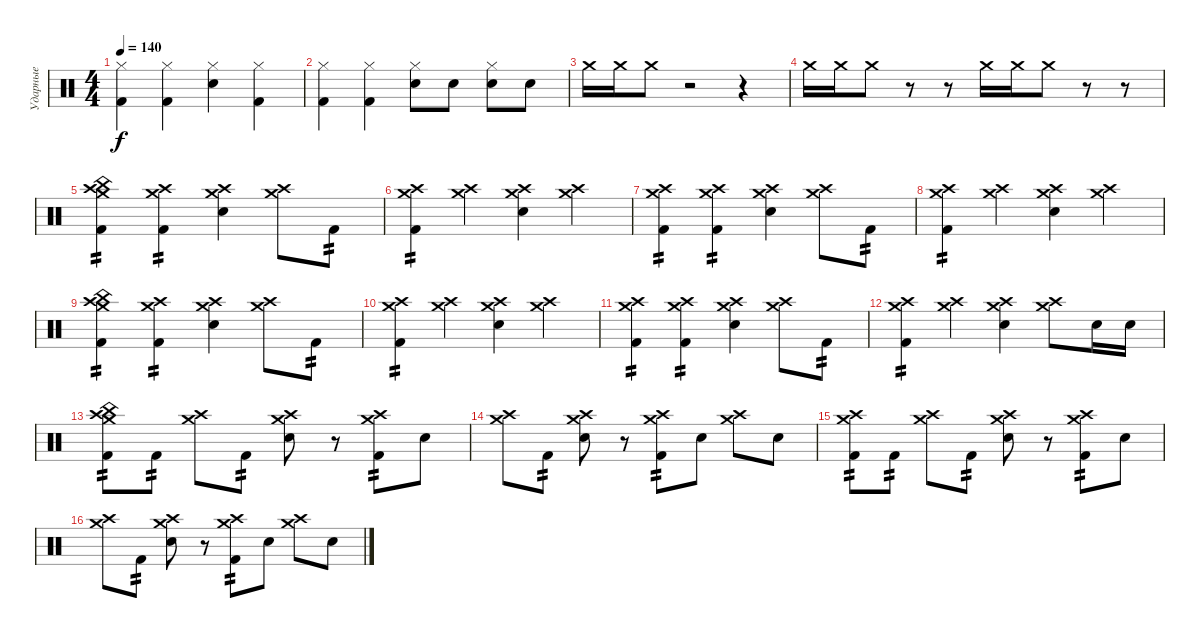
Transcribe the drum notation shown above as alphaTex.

\track ("Ударные" "Ударные") {instrument percussion}
\staff {score}
\articulation defaults
\ts (4 4)
\tempo 140
\clef neutral
\ks c
("Hi-Hat (closed)" "Kick (hit) 2").4{dy f} ("Hi-Hat (closed)" "Kick (hit) 2").4 ("Hi-Hat (closed)" "Electric Snare (hit)").4 ("Hi-Hat (closed)" "Kick (hit) 2").4 |
("Hi-Hat (closed)" "Kick (hit) 2").4 ("Hi-Hat (closed)" "Kick (hit) 2").4 ("Hi-Hat (closed)" "Electric Snare (hit)").8 "Electric Snare (hit)".8 ("Hi-Hat (closed)" "Electric Snare (hit)").8 "Electric Snare (hit)".8 |
"Crash medium (hit)".16 "Crash medium (hit)".16 "Crash medium (hit)".8 r.2 r.4 |
"Crash medium (hit)".16 "Crash medium (hit)".16 "Crash medium (hit)".8 r.8 r.8 "Crash medium (hit)".16 "Crash medium (hit)".16 "Crash medium (hit)".8 r.8 r.8 |
("Crash high (hit)" "China (hit)" "Crash medium (hit)" "Kick (hit) 2").4{tp 2} ("Crash high (hit)" "Crash medium (hit)" "Kick (hit) 2").4{tp 2} ("Crash high (hit)" "Crash medium (hit)" "Electric Snare (hit)").4 ("Crash high (hit)" "Crash medium (hit)").8 "Kick (hit) 2".8{tp 2} |
("Crash high (hit)" "Crash medium (hit)" "Kick (hit) 2").4{tp 2} ("Crash high (hit)" "Crash medium (hit)").4 ("Crash high (hit)" "Crash medium (hit)" "Electric Snare (hit)").4 ("Crash high (hit)" "Crash medium (hit)").4 |
("Crash high (hit)" "Crash medium (hit)" "Kick (hit) 2").4{tp 2} ("Crash high (hit)" "Crash medium (hit)" "Kick (hit) 2").4{tp 2} ("Crash high (hit)" "Crash medium (hit)" "Electric Snare (hit)").4 ("Crash high (hit)" "Crash medium (hit)").8 "Kick (hit) 2".8{tp 2} |
("Crash high (hit)" "Crash medium (hit)" "Kick (hit) 2").4{tp 2} ("Crash high (hit)" "Crash medium (hit)").4 ("Crash high (hit)" "Crash medium (hit)" "Electric Snare (hit)").4 ("Crash high (hit)" "Crash medium (hit)").4 |
("Crash high (hit)" "China (hit)" "Crash medium (hit)" "Kick (hit) 2").4{tp 2} ("Crash high (hit)" "Crash medium (hit)" "Kick (hit) 2").4{tp 2} ("Crash high (hit)" "Crash medium (hit)" "Electric Snare (hit)").4 ("Crash high (hit)" "Crash medium (hit)").8 "Kick (hit) 2".8{tp 2} |
("Crash high (hit)" "Crash medium (hit)" "Kick (hit) 2").4{tp 2} ("Crash high (hit)" "Crash medium (hit)").4 ("Crash high (hit)" "Crash medium (hit)" "Electric Snare (hit)").4 ("Crash high (hit)" "Crash medium (hit)").4 |
("Crash high (hit)" "Crash medium (hit)" "Kick (hit) 2").4{tp 2} ("Crash high (hit)" "Crash medium (hit)" "Kick (hit) 2").4{tp 2} ("Crash high (hit)" "Crash medium (hit)" "Electric Snare (hit)").4 ("Crash high (hit)" "Crash medium (hit)").8 "Kick (hit) 2".8{tp 2} |
("Crash high (hit)" "Crash medium (hit)" "Kick (hit) 2").4{tp 2} ("Crash high (hit)" "Crash medium (hit)").4 ("Crash high (hit)" "Crash medium (hit)" "Electric Snare (hit)").4 ("Crash high (hit)" "Crash medium (hit)").8 "Electric Snare (hit)".16 "Electric Snare (hit)".16 |
("Crash high (hit)" "Crash medium (hit)" "China (hit)" "Kick (hit) 2").8{tp 2} "Kick (hit) 2".8{tp 2} ("Crash high (hit)" "Crash medium (hit)").8 "Kick (hit) 2".8{tp 2} ("Crash high (hit)" "Crash medium (hit)" "Electric Snare (hit)").8 r.8 ("Crash high (hit)" "Crash medium (hit)" "Kick (hit) 2").8{tp 2} "Electric Snare (hit)".8 |
("Crash high (hit)" "Crash medium (hit)").8 "Kick (hit) 2".8{tp 2} ("Crash high (hit)" "Crash medium (hit)" "Electric Snare (hit)").8 r.8 ("Crash high (hit)" "Crash medium (hit)" "Kick (hit) 2").8{tp 2} "Electric Snare (hit)".8 ("Crash high (hit)" "Crash medium (hit)").8 "Electric Snare (hit)".8 |
("Crash high (hit)" "Crash medium (hit)" "Kick (hit) 2").8{tp 2} "Kick (hit) 2".8{tp 2} ("Crash high (hit)" "Crash medium (hit)").8 "Kick (hit) 2".8{tp 2} ("Crash high (hit)" "Crash medium (hit)" "Electric Snare (hit)").8 r.8 ("Crash high (hit)" "Crash medium (hit)" "Kick (hit) 2").8{tp 2} "Electric Snare (hit)".8 |
("Crash high (hit)" "Crash medium (hit)").8 "Kick (hit) 2".8{tp 2} ("Crash high (hit)" "Crash medium (hit)" "Electric Snare (hit)").8 r.8 ("Crash high (hit)" "Crash medium (hit)" "Kick (hit) 2").8{tp 2} "Electric Snare (hit)".8 ("Crash high (hit)" "Crash medium (hit)").8 "Electric Snare (hit)".8
